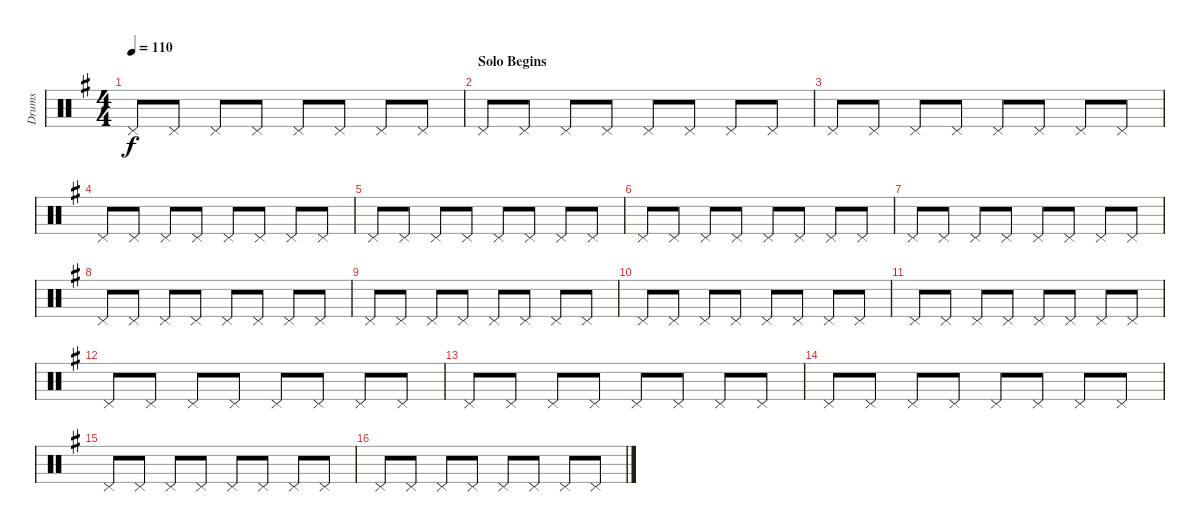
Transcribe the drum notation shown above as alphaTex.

\track ("Drums" "Drums") {instrument percussion}
\staff {score}
\articulation defaults
\ts (4 4)
\tempo 110
\clef neutral
\ks g "Pedal Hi-Hat (hit)".8{dy f} "Pedal Hi-Hat (hit)".8 "Pedal Hi-Hat (hit)".8 "Pedal Hi-Hat (hit)".8 "Pedal Hi-Hat (hit)".8 "Pedal Hi-Hat (hit)".8 "Pedal Hi-Hat (hit)".8 "Pedal Hi-Hat (hit)".8
|
\section ("" "Solo Begins")
"Pedal Hi-Hat (hit)".8 "Pedal Hi-Hat (hit)".8 "Pedal Hi-Hat (hit)".8 "Pedal Hi-Hat (hit)".8 "Pedal Hi-Hat (hit)".8 "Pedal Hi-Hat (hit)".8 "Pedal Hi-Hat (hit)".8 "Pedal Hi-Hat (hit)".8 |
"Pedal Hi-Hat (hit)".8 "Pedal Hi-Hat (hit)".8 "Pedal Hi-Hat (hit)".8 "Pedal Hi-Hat (hit)".8 "Pedal Hi-Hat (hit)".8 "Pedal Hi-Hat (hit)".8 "Pedal Hi-Hat (hit)".8 "Pedal Hi-Hat (hit)".8 |
"Pedal Hi-Hat (hit)".8 "Pedal Hi-Hat (hit)".8 "Pedal Hi-Hat (hit)".8 "Pedal Hi-Hat (hit)".8 "Pedal Hi-Hat (hit)".8 "Pedal Hi-Hat (hit)".8 "Pedal Hi-Hat (hit)".8 "Pedal Hi-Hat (hit)".8 |
"Pedal Hi-Hat (hit)".8 "Pedal Hi-Hat (hit)".8 "Pedal Hi-Hat (hit)".8 "Pedal Hi-Hat (hit)".8 "Pedal Hi-Hat (hit)".8 "Pedal Hi-Hat (hit)".8 "Pedal Hi-Hat (hit)".8 "Pedal Hi-Hat (hit)".8 |
"Pedal Hi-Hat (hit)".8 "Pedal Hi-Hat (hit)".8 "Pedal Hi-Hat (hit)".8 "Pedal Hi-Hat (hit)".8 "Pedal Hi-Hat (hit)".8 "Pedal Hi-Hat (hit)".8 "Pedal Hi-Hat (hit)".8 "Pedal Hi-Hat (hit)".8 |
"Pedal Hi-Hat (hit)".8 "Pedal Hi-Hat (hit)".8 "Pedal Hi-Hat (hit)".8 "Pedal Hi-Hat (hit)".8 "Pedal Hi-Hat (hit)".8 "Pedal Hi-Hat (hit)".8 "Pedal Hi-Hat (hit)".8 "Pedal Hi-Hat (hit)".8 |
"Pedal Hi-Hat (hit)".8 "Pedal Hi-Hat (hit)".8 "Pedal Hi-Hat (hit)".8 "Pedal Hi-Hat (hit)".8 "Pedal Hi-Hat (hit)".8 "Pedal Hi-Hat (hit)".8 "Pedal Hi-Hat (hit)".8 "Pedal Hi-Hat (hit)".8 |
"Pedal Hi-Hat (hit)".8 "Pedal Hi-Hat (hit)".8 "Pedal Hi-Hat (hit)".8 "Pedal Hi-Hat (hit)".8 "Pedal Hi-Hat (hit)".8 "Pedal Hi-Hat (hit)".8 "Pedal Hi-Hat (hit)".8 "Pedal Hi-Hat (hit)".8 |
"Pedal Hi-Hat (hit)".8 "Pedal Hi-Hat (hit)".8 "Pedal Hi-Hat (hit)".8 "Pedal Hi-Hat (hit)".8 "Pedal Hi-Hat (hit)".8 "Pedal Hi-Hat (hit)".8 "Pedal Hi-Hat (hit)".8 "Pedal Hi-Hat (hit)".8 |
"Pedal Hi-Hat (hit)".8 "Pedal Hi-Hat (hit)".8 "Pedal Hi-Hat (hit)".8 "Pedal Hi-Hat (hit)".8 "Pedal Hi-Hat (hit)".8 "Pedal Hi-Hat (hit)".8 "Pedal Hi-Hat (hit)".8 "Pedal Hi-Hat (hit)".8 |
"Pedal Hi-Hat (hit)".8 "Pedal Hi-Hat (hit)".8 "Pedal Hi-Hat (hit)".8 "Pedal Hi-Hat (hit)".8 "Pedal Hi-Hat (hit)".8 "Pedal Hi-Hat (hit)".8 "Pedal Hi-Hat (hit)".8 "Pedal Hi-Hat (hit)".8 |
"Pedal Hi-Hat (hit)".8 "Pedal Hi-Hat (hit)".8 "Pedal Hi-Hat (hit)".8 "Pedal Hi-Hat (hit)".8 "Pedal Hi-Hat (hit)".8 "Pedal Hi-Hat (hit)".8 "Pedal Hi-Hat (hit)".8 "Pedal Hi-Hat (hit)".8 |
"Pedal Hi-Hat (hit)".8 "Pedal Hi-Hat (hit)".8 "Pedal Hi-Hat (hit)".8 "Pedal Hi-Hat (hit)".8 "Pedal Hi-Hat (hit)".8 "Pedal Hi-Hat (hit)".8 "Pedal Hi-Hat (hit)".8 "Pedal Hi-Hat (hit)".8 |
"Pedal Hi-Hat (hit)".8 "Pedal Hi-Hat (hit)".8 "Pedal Hi-Hat (hit)".8 "Pedal Hi-Hat (hit)".8 "Pedal Hi-Hat (hit)".8 "Pedal Hi-Hat (hit)".8 "Pedal Hi-Hat (hit)".8 "Pedal Hi-Hat (hit)".8 |
"Pedal Hi-Hat (hit)".8 "Pedal Hi-Hat (hit)".8 "Pedal Hi-Hat (hit)".8 "Pedal Hi-Hat (hit)".8 "Pedal Hi-Hat (hit)".8 "Pedal Hi-Hat (hit)".8 "Pedal Hi-Hat (hit)".8 "Pedal Hi-Hat (hit)".8
